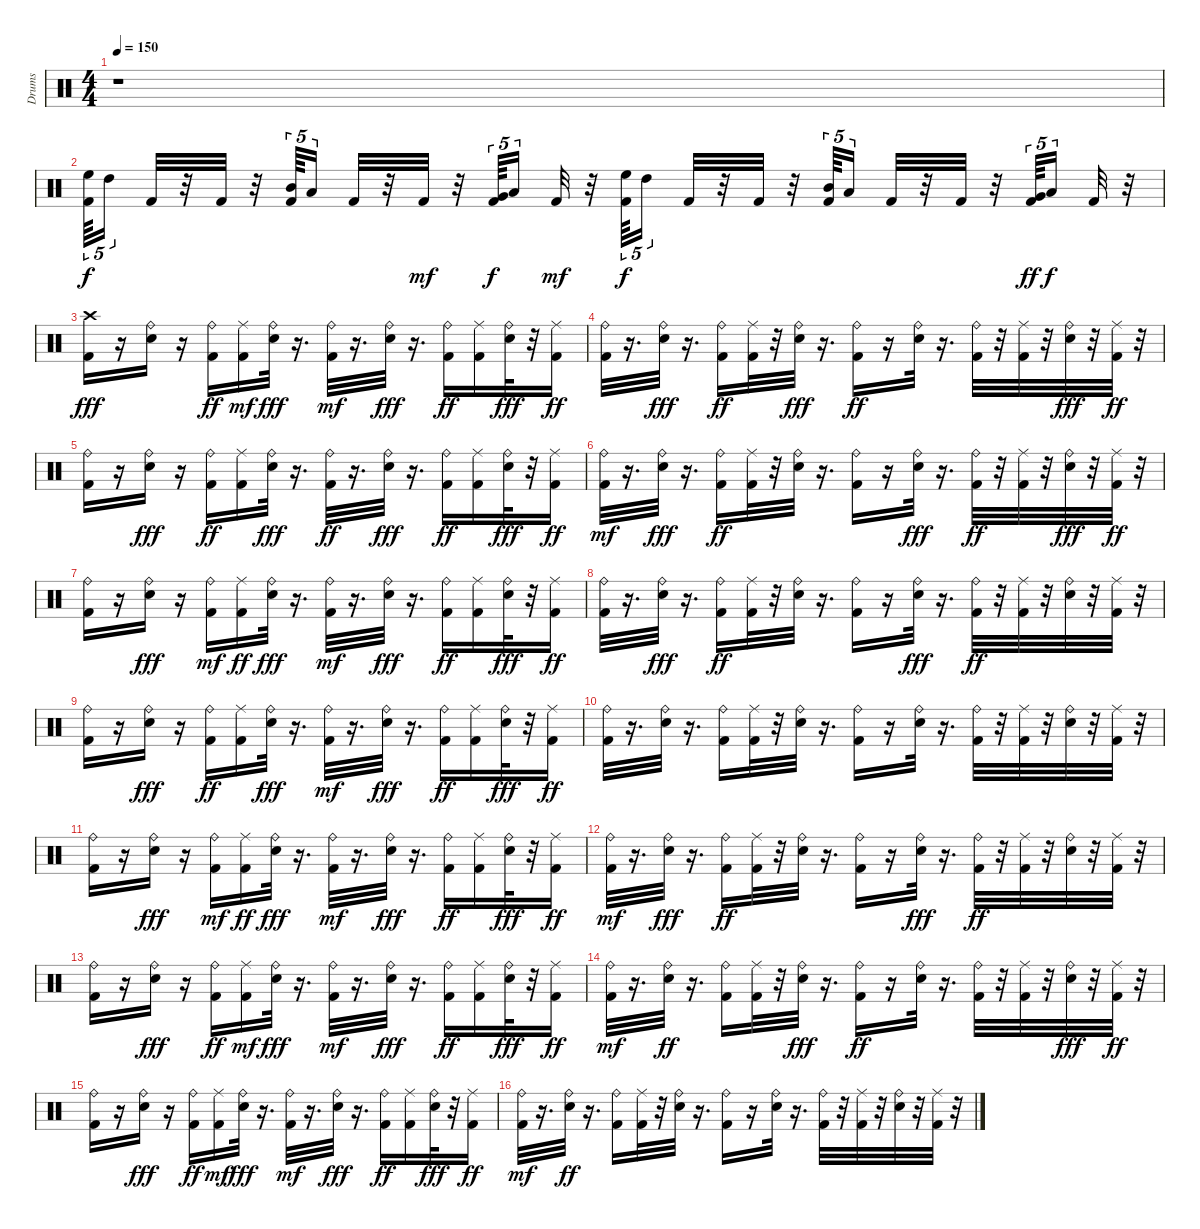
\track ("Drums" "Drums") {instrument percussion}
\staff {score}
\articulation defaults
\ts (4 4)
\tempo 150
\clef neutral
\ks c
r.1{dy f} |
("Kick (hit) 2" "High Floor Tom (hit)").64{tu (5 4)} "High Tom (hit)".16{tu (5 4) beam splitsecondary} "Kick (hit) 2".32 r.32 "Kick (hit) 2".32 r.32 ("Kick (hit) 2" "Mid Tom (hit)").64{tu (5 4)} "Low Tom (hit)".16{tu (5 4)} "Kick (hit) 2".32 r.32 "Kick (hit) 2".32{dy mf} r.32 ("Kick (hit) 2" "Very Low Tom (hit)").64{tu (5 4) dy f} "Low Floor Tom (hit)".16{tu (5 4) beam splitsecondary} "Kick (hit) 2".32{dy mf} r.32 ("Kick (hit) 2" "High Floor Tom (hit)").64{tu (5 4) dy f} "High Tom (hit)".16{tu (5 4) beam splitsecondary} "Kick (hit) 2".32 r.32 "Kick (hit) 2".32 r.32 ("Mid Tom (hit)" "Kick (hit) 2").64{tu (5 4)} "Low Tom (hit)".16{tu (5 4)} "Kick (hit) 2".32 r.32 "Kick (hit) 2".32 r.32 ("Kick (hit) 2" "Very Low Tom (hit)").64{tu (5 4) dy ff} "Low Floor Tom (hit)".16{tu (5 4) dy f beam splitsecondary} "Kick (hit) 2".32 r.32 |
("Kick (hit) 2" "Crash high (hit)").16{dy fff} r.16 ("Electric Snare (hit)" "Ride (bell)").16 r.16 ("Ride (bell)" "Kick (hit) 2").16{dy ff} ("Kick (hit) 2" "Ride (middle)").16{dy mf} ("Ride (bell)" "Electric Snare (hit)").32{dy fff} r.16{d} ("Kick (hit) 2" "Ride (bell)").32{dy mf} r.16{d} ("Electric Snare (hit)" "Ride (bell)").32{dy fff} r.16{d} ("Kick (hit) 2" "Ride (bell)").16{dy ff} ("Kick (hit) 2" "Ride (middle)").16 ("Electric Snare (hit)" "Ride (bell)").32{dy fff} r.32 ("Ride (middle)" "Kick (hit) 2").16{dy ff} |
("Ride (bell)" "Kick (hit) 2").32 r.16{d} ("Ride (bell)" "Electric Snare (hit)").32{dy fff} r.16{d} ("Ride (bell)" "Kick (hit) 2").16{dy ff} ("Kick (hit) 2" "Ride (middle)").32 r.32 ("Ride (bell)" "Electric Snare (hit)").32{dy fff} r.16{d} ("Kick (hit) 2" "Ride (bell)").16{dy ff} r.16 ("Electric Snare (hit)" "Ride (bell)").32 r.16{d} ("Ride (bell)" "Kick (hit) 2").32 r.32 ("Kick (hit) 2" "Ride (middle)").32 r.32 ("Ride (bell)" "Electric Snare (hit)").32{dy fff} r.32 ("Ride (middle)" "Kick (hit) 2").32{dy ff} r.32 |
("Ride (bell)" "Kick (hit) 2").16 r.16 ("Electric Snare (hit)" "Ride (bell)").16{dy fff} r.16 ("Ride (bell)" "Kick (hit) 2").16{dy ff} ("Ride (middle)" "Kick (hit) 2").16 ("Electric Snare (hit)" "Ride (bell)").32{dy fff} r.16{d} ("Ride (bell)" "Kick (hit) 2").32{dy ff} r.16{d} ("Ride (bell)" "Electric Snare (hit)").32{dy fff} r.16{d} ("Ride (bell)" "Kick (hit) 2").16{dy ff} ("Kick (hit) 2" "Ride (middle)").16 ("Ride (bell)" "Electric Snare (hit)").32{dy fff} r.32 ("Ride (middle)" "Kick (hit) 2").16{dy ff} |
("Kick (hit) 2" "Ride (bell)").32{dy mf} r.16{d} ("Ride (bell)" "Electric Snare (hit)").32{dy fff} r.16{d} ("Ride (bell)" "Kick (hit) 2").16{dy ff} ("Kick (hit) 2" "Ride (middle)").32 r.32 ("Electric Snare (hit)" "Ride (bell)").32 r.16{d} ("Kick (hit) 2" "Ride (bell)").16 r.16 ("Ride (bell)" "Electric Snare (hit)").32{dy fff} r.16{d} ("Kick (hit) 2" "Ride (bell)").32{dy ff} r.32 ("Kick (hit) 2" "Ride (middle)").32 r.32 ("Ride (bell)" "Electric Snare (hit)").32{dy fff} r.32 ("Kick (hit) 2" "Ride (middle)").32{dy ff} r.32 |
("Ride (bell)" "Kick (hit) 2").16 r.16 ("Electric Snare (hit)" "Ride (bell)").16{dy fff} r.16 ("Kick (hit) 2" "Ride (bell)").16{dy mf} ("Ride (middle)" "Kick (hit) 2").16{dy ff} ("Electric Snare (hit)" "Ride (bell)").32{dy fff} r.16{d} ("Kick (hit) 2" "Ride (bell)").32{dy mf} r.16{d} ("Ride (bell)" "Electric Snare (hit)").32{dy fff} r.16{d} ("Kick (hit) 2" "Ride (bell)").16{dy ff} ("Ride (middle)" "Kick (hit) 2").16 ("Electric Snare (hit)" "Ride (bell)").32{dy fff} r.32 ("Kick (hit) 2" "Ride (middle)").16{dy ff} |
("Ride (bell)" "Kick (hit) 2").32 r.16{d} ("Ride (bell)" "Electric Snare (hit)").32{dy fff} r.16{d} ("Kick (hit) 2" "Ride (bell)").16{dy ff} ("Kick (hit) 2" "Ride (middle)").32 r.32 ("Electric Snare (hit)" "Ride (bell)").32 r.16{d} ("Ride (bell)" "Kick (hit) 2").16 r.16 ("Ride (bell)" "Electric Snare (hit)").32{dy fff} r.16{d} ("Ride (bell)" "Kick (hit) 2").32{dy ff} r.32 ("Ride (middle)" "Kick (hit) 2").32 r.32 ("Electric Snare (hit)" "Ride (bell)").32 r.32 ("Ride (middle)" "Kick (hit) 2").32 r.32 |
("Ride (bell)" "Kick (hit) 2").16 r.16 ("Electric Snare (hit)" "Ride (bell)").16{dy fff} r.16 ("Ride (bell)" "Kick (hit) 2").16{dy ff} ("Ride (middle)" "Kick (hit) 2").16 ("Electric Snare (hit)" "Ride (bell)").32{dy fff} r.16{d} ("Kick (hit) 2" "Ride (bell)").32{dy mf} r.16{d} ("Electric Snare (hit)" "Ride (bell)").32{dy fff} r.16{d} ("Ride (bell)" "Kick (hit) 2").16{dy ff} ("Kick (hit) 2" "Ride (middle)").16 ("Electric Snare (hit)" "Ride (bell)").32{dy fff} r.32 ("Kick (hit) 2" "Ride (middle)").16{dy ff} |
("Ride (bell)" "Kick (hit) 2").32 r.16{d} ("Electric Snare (hit)" "Ride (bell)").32 r.16{d} ("Kick (hit) 2" "Ride (bell)").16 ("Ride (middle)" "Kick (hit) 2").32 r.32 ("Electric Snare (hit)" "Ride (bell)").32 r.16{d} ("Ride (bell)" "Kick (hit) 2").16 r.16 ("Electric Snare (hit)" "Ride (bell)").32 r.16{d} ("Ride (bell)" "Kick (hit) 2").32 r.32 ("Kick (hit) 2" "Ride (middle)").32 r.32 ("Electric Snare (hit)" "Ride (bell)").32 r.32 ("Ride (middle)" "Kick (hit) 2").32 r.32 |
("Kick (hit) 2" "Ride (bell)").16 r.16 ("Ride (bell)" "Electric Snare (hit)").16{dy fff} r.16 ("Kick (hit) 2" "Ride (bell)").16{dy mf} ("Ride (middle)" "Kick (hit) 2").16{dy ff} ("Ride (bell)" "Electric Snare (hit)").32{dy fff} r.16{d} ("Kick (hit) 2" "Ride (bell)").32{dy mf} r.16{d} ("Ride (bell)" "Electric Snare (hit)").32{dy fff} r.16{d} ("Kick (hit) 2" "Ride (bell)").16{dy ff} ("Ride (middle)" "Kick (hit) 2").16 ("Electric Snare (hit)" "Ride (bell)").32{dy fff} r.32 ("Ride (middle)" "Kick (hit) 2").16{dy ff} |
("Kick (hit) 2" "Ride (bell)").32{dy mf} r.16{d} ("Ride (bell)" "Electric Snare (hit)").32{dy fff} r.16{d} ("Kick (hit) 2" "Ride (bell)").16{dy ff} ("Ride (middle)" "Kick (hit) 2").32 r.32 ("Electric Snare (hit)" "Ride (bell)").32 r.16{d} ("Ride (bell)" "Kick (hit) 2").16 r.16 ("Ride (bell)" "Electric Snare (hit)").32{dy fff} r.16{d} ("Kick (hit) 2" "Ride (bell)").32{dy ff} r.32 ("Ride (middle)" "Kick (hit) 2").32 r.32 ("Electric Snare (hit)" "Ride (bell)").32 r.32 ("Ride (middle)" "Kick (hit) 2").32 r.32 |
("Ride (bell)" "Kick (hit) 2").16 r.16 ("Ride (bell)" "Electric Snare (hit)").16{dy fff} r.16 ("Ride (bell)" "Kick (hit) 2").16{dy ff} ("Kick (hit) 2" "Ride (middle)").16{dy mf} ("Ride (bell)" "Electric Snare (hit)").32{dy fff} r.16{d} ("Kick (hit) 2" "Ride (bell)").32{dy mf} r.16{d} ("Ride (bell)" "Electric Snare (hit)").32{dy fff} r.16{d} ("Kick (hit) 2" "Ride (bell)").16{dy ff} ("Ride (middle)" "Kick (hit) 2").16 ("Ride (bell)" "Electric Snare (hit)").32{dy fff} r.32 ("Kick (hit) 2" "Ride (middle)").16{dy ff} |
("Kick (hit) 2" "Ride (bell)").32{dy mf} r.16{d} ("Electric Snare (hit)" "Ride (bell)").32{dy ff} r.16{d} ("Ride (bell)" "Kick (hit) 2").16 ("Kick (hit) 2" "Ride (middle)").32 r.32 ("Ride (bell)" "Electric Snare (hit)").32{dy fff} r.16{d} ("Kick (hit) 2" "Ride (bell)").16{dy ff} r.16 ("Electric Snare (hit)" "Ride (bell)").32 r.16{d} ("Ride (bell)" "Kick (hit) 2").32 r.32 ("Kick (hit) 2" "Ride (middle)").32 r.32 ("Ride (bell)" "Electric Snare (hit)").32{dy fff} r.32 ("Kick (hit) 2" "Ride (middle)").32{dy ff} r.32 |
("Ride (bell)" "Kick (hit) 2").16 r.16 ("Electric Snare (hit)" "Ride (bell)").16{dy fff} r.16 ("Ride (bell)" "Kick (hit) 2").16{dy ff} ("Kick (hit) 2" "Ride (middle)").16{dy mf} ("Electric Snare (hit)" "Ride (bell)").32{dy fff} r.16{d} ("Kick (hit) 2" "Ride (bell)").32{dy mf} r.16{d} ("Electric Snare (hit)" "Ride (bell)").32{dy fff} r.16{d} ("Ride (bell)" "Kick (hit) 2").16{dy ff} ("Kick (hit) 2" "Ride (middle)").16 ("Ride (bell)" "Electric Snare (hit)").32{dy fff} r.32 ("Ride (middle)" "Kick (hit) 2").16{dy ff} |
("Kick (hit) 2" "Ride (bell)").32{dy mf} r.16{d} ("Electric Snare (hit)" "Ride (bell)").32{dy ff} r.16{d} ("Ride (bell)" "Kick (hit) 2").16 ("Ride (middle)" "Kick (hit) 2").32 r.32 ("Electric Snare (hit)" "Ride (bell)").32 r.16{d} ("Kick (hit) 2" "Ride (bell)").16 r.16 ("Electric Snare (hit)" "Ride (bell)").32 r.16{d} ("Kick (hit) 2" "Ride (bell)").32 r.32 ("Kick (hit) 2" "Ride (middle)").32 r.32 ("Electric Snare (hit)" "Ride (bell)").32 r.32 ("Ride (middle)" "Kick (hit) 2").32 r.32
